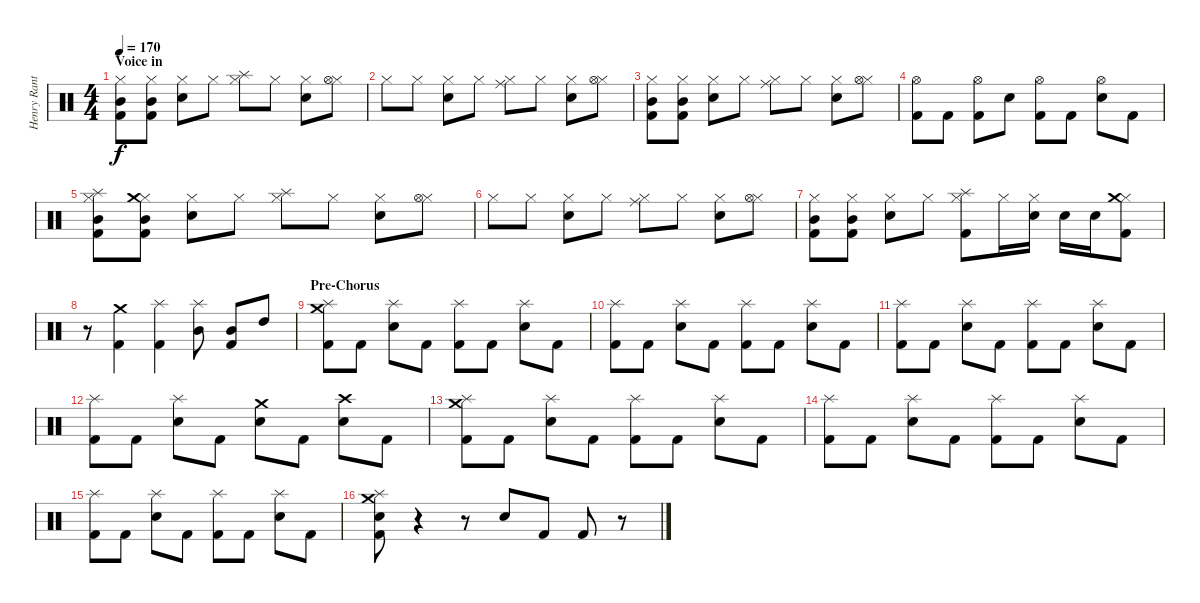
\track ("Henry Ranta -Drums-" "Henry Rant") {instrument percussion}
\staff {score}
\articulation defaults
\ts (4 4)
\section ("" "Voice in")
\tempo 170
\clef neutral
\ks c
("Hi-Hat (closed)" "Mid Tom (hit)" "Kick (hit) 2").8{dy f} ("Hi-Hat (closed)" "Mid Tom (hit)" "Kick (hit) 2").8 ("Hi-Hat (closed)" "Snare (hit) 2").8 "Hi-Hat (closed)".8 ("Hi-Hat (closed)" "Splash (hit)").8 "Hi-Hat (closed)".8 ("Hi-Hat (closed)" "Snare (hit) 2").8 ("Hi-Hat (closed)" "Hi-Hat (open)").8 |
"Hi-Hat (closed)".8 "Hi-Hat (closed)".8 ("Hi-Hat (closed)" "Snare (hit) 2").8 "Hi-Hat (closed)".8 ("Hi-Hat (closed)" "Ride (middle)").8 "Hi-Hat (closed)".8 ("Hi-Hat (closed)" "Snare (hit) 2").8 ("Hi-Hat (closed)" "Hi-Hat (open)").8 |
("Hi-Hat (closed)" "Mid Tom (hit)" "Kick (hit) 2").8 ("Hi-Hat (closed)" "Mid Tom (hit)" "Kick (hit) 2").8 ("Hi-Hat (closed)" "Snare (hit) 2").8 "Hi-Hat (closed)".8 ("Hi-Hat (closed)" "Ride (middle)").8 "Hi-Hat (closed)".8 ("Hi-Hat (closed)" "Snare (hit) 2").8 ("Hi-Hat (closed)" "Hi-Hat (open)").8 |
("Hi-Hat (open)" "Kick (hit) 2").8 "Kick (hit) 2".8 ("Hi-Hat (open)" "Kick (hit) 2").8 "Snare (hit) 2".8 ("Hi-Hat (open)" "Kick (hit) 2").8 "Kick (hit) 2".8 ("Hi-Hat (open)" "Snare (hit) 2").8 "Kick (hit) 2".8 |
("Hi-Hat (closed)" "Splash (hit)" "Mid Tom (hit)" "Kick (hit) 2").8 ("Hi-Hat (closed)" "Crash medium (hit)" "Mid Tom (hit)" "Kick (hit) 2").8 ("Hi-Hat (closed)" "Snare (hit) 2").8 "Hi-Hat (closed)".8 ("Hi-Hat (closed)" "Splash (hit)").8 "Hi-Hat (closed)".8 ("Hi-Hat (closed)" "Snare (hit) 2").8 ("Hi-Hat (closed)" "Hi-Hat (open)").8 |
"Hi-Hat (closed)".8 "Hi-Hat (closed)".8 ("Hi-Hat (closed)" "Snare (hit) 2").8 "Hi-Hat (closed)".8 ("Hi-Hat (closed)" "Ride (middle)").8 "Hi-Hat (closed)".8 ("Hi-Hat (closed)" "Snare (hit) 2").8 ("Hi-Hat (closed)" "Hi-Hat (open)").8 |
("Hi-Hat (closed)" "Mid Tom (hit)" "Kick (hit) 2").8 ("Hi-Hat (closed)" "Mid Tom (hit)" "Kick (hit) 2").8 ("Hi-Hat (closed)" "Snare (hit) 2").8 "Hi-Hat (closed)".8 ("Hi-Hat (closed)" "Splash (hit)" "Kick (hit) 2").8 "Hi-Hat (closed)".16 ("Hi-Hat (closed)" "Snare (hit) 2").16 "Snare (hit) 2".16 "Snare (hit) 2".16 ("Hi-Hat (closed)" "Crash medium (hit)" "Kick (hit) 2").8 |
r.8 ("Crash medium (hit)" "Kick (hit) 2").4 ("Splash (hit)" "Kick (hit) 2").4 ("Splash (hit)" "Mid Tom (hit)").8 ("Mid Tom (hit)" "Kick (hit) 2").8 "High Tom (hit)".8 |
\section ("" "Pre-Chorus")
("Splash (hit)" "Crash medium (hit)" "Kick (hit) 2").8 "Kick (hit) 2".8 ("Splash (hit)" "Snare (hit) 2").8 "Kick (hit) 2".8 ("Splash (hit)" "Kick (hit) 2").8 "Kick (hit) 2".8 ("Splash (hit)" "Snare (hit) 2").8 "Kick (hit) 2".8 |
("Splash (hit)" "Kick (hit) 2").8 "Kick (hit) 2".8 ("Splash (hit)" "Snare (hit) 2").8 "Kick (hit) 2".8 ("Splash (hit)" "Kick (hit) 2").8 "Kick (hit) 2".8 ("Splash (hit)" "Snare (hit) 2").8 "Kick (hit) 2".8 |
("Splash (hit)" "Kick (hit) 2").8 "Kick (hit) 2".8 ("Splash (hit)" "Snare (hit) 2").8 "Kick (hit) 2".8 ("Splash (hit)" "Kick (hit) 2").8 "Kick (hit) 2".8 ("Splash (hit)" "Snare (hit) 2").8 "Kick (hit) 2".8 |
("Splash (hit)" "Kick (hit) 2").8 "Kick (hit) 2".8 ("Splash (hit)" "Snare (hit) 2").8 "Kick (hit) 2".8 ("Crash medium (hit)" "Snare (hit) 2").8 "Kick (hit) 2".8 ("Crash high (hit)" "Snare (hit) 2").8 "Kick (hit) 2".8 |
("Splash (hit)" "Crash medium (hit)" "Kick (hit) 2").8 "Kick (hit) 2".8 ("Splash (hit)" "Snare (hit) 2").8 "Kick (hit) 2".8 ("Splash (hit)" "Kick (hit) 2").8 "Kick (hit) 2".8 ("Splash (hit)" "Snare (hit) 2").8 "Kick (hit) 2".8 |
("Splash (hit)" "Kick (hit) 2").8 "Kick (hit) 2".8 ("Splash (hit)" "Snare (hit) 2").8 "Kick (hit) 2".8 ("Splash (hit)" "Kick (hit) 2").8 "Kick (hit) 2".8 ("Splash (hit)" "Snare (hit) 2").8 "Kick (hit) 2".8 |
("Splash (hit)" "Kick (hit) 2").8 "Kick (hit) 2".8 ("Splash (hit)" "Snare (hit) 2").8 "Kick (hit) 2".8 ("Splash (hit)" "Kick (hit) 2").8 "Kick (hit) 2".8 ("Splash (hit)" "Snare (hit) 2").8 "Kick (hit) 2".8 |
("Splash (hit)" "Crash medium (hit)" "Snare (hit) 2" "Kick (hit) 2").8 r.4 r.8 "Snare (hit) 2".8 "Kick (hit) 2".8 "Kick (hit) 2".8 r.8
